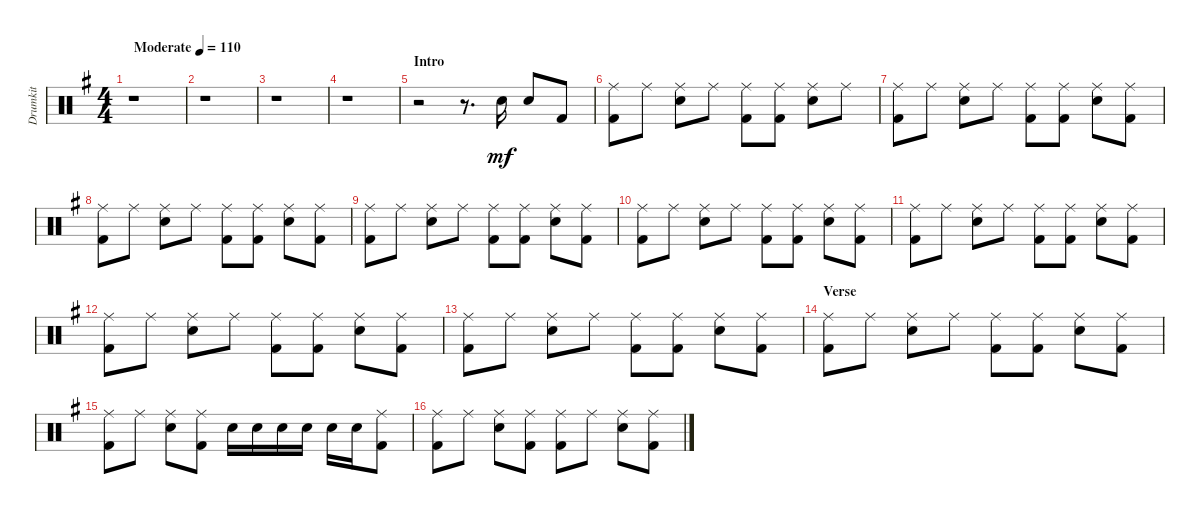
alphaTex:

\track ("Drumkit" "Drumkit") {instrument percussion}
\staff {score}
\articulation defaults
\ts (4 4)
\tempo (110 "Moderate")
\clef neutral
\ks g
r.1{dy mf} |
r.1 |
r.1 |
r.1 |
\section ("" "Intro")
r.2 r.8{d} "Snare (hit) 2".16 "Snare (hit) 2".8 "Kick (hit) 2".8 |
("Kick (hit) 2" "Ride (middle)").8 "Ride (middle)".8 ("Snare (hit) 2" "Ride (middle)").8 "Ride (middle)".8 ("Kick (hit) 2" "Ride (middle)").8 ("Kick (hit) 2" "Ride (middle)").8 ("Snare (hit) 2" "Ride (middle)").8 "Ride (middle)".8 |
("Kick (hit) 2" "Ride (middle)").8 "Ride (middle)".8 ("Snare (hit) 2" "Ride (middle)").8 "Ride (middle)".8 ("Kick (hit) 2" "Ride (middle)").8 ("Kick (hit) 2" "Ride (middle)").8 ("Snare (hit) 2" "Ride (middle)").8 ("Ride (middle)" "Kick (hit) 2").8 |
("Kick (hit) 2" "Ride (middle)").8 "Ride (middle)".8 ("Snare (hit) 2" "Ride (middle)").8 "Ride (middle)".8 ("Kick (hit) 2" "Ride (middle)").8 ("Kick (hit) 2" "Ride (middle)").8 ("Snare (hit) 2" "Ride (middle)").8 ("Ride (middle)" "Kick (hit) 2").8 |
("Kick (hit) 2" "Ride (middle)").8 "Ride (middle)".8 ("Snare (hit) 2" "Ride (middle)").8 "Ride (middle)".8 ("Kick (hit) 2" "Ride (middle)").8 ("Kick (hit) 2" "Ride (middle)").8 ("Snare (hit) 2" "Ride (middle)").8 ("Ride (middle)" "Kick (hit) 2").8 |
("Kick (hit) 2" "Ride (middle)").8 "Ride (middle)".8 ("Snare (hit) 2" "Ride (middle)").8 "Ride (middle)".8 ("Kick (hit) 2" "Ride (middle)").8 ("Kick (hit) 2" "Ride (middle)").8 ("Snare (hit) 2" "Ride (middle)").8 ("Ride (middle)" "Kick (hit) 2").8 |
("Kick (hit) 2" "Ride (middle)").8 "Ride (middle)".8 ("Snare (hit) 2" "Ride (middle)").8 "Ride (middle)".8 ("Kick (hit) 2" "Ride (middle)").8 ("Kick (hit) 2" "Ride (middle)").8 ("Snare (hit) 2" "Ride (middle)").8 ("Ride (middle)" "Kick (hit) 2").8 |
("Kick (hit) 2" "Ride (middle)").8 "Ride (middle)".8 ("Snare (hit) 2" "Ride (middle)").8 "Ride (middle)".8 ("Kick (hit) 2" "Ride (middle)").8 ("Kick (hit) 2" "Ride (middle)").8 ("Snare (hit) 2" "Ride (middle)").8 ("Ride (middle)" "Kick (hit) 2").8 |
("Kick (hit) 2" "Ride (middle)").8 "Ride (middle)".8 ("Snare (hit) 2" "Ride (middle)").8 "Ride (middle)".8 ("Kick (hit) 2" "Ride (middle)").8 ("Kick (hit) 2" "Ride (middle)").8 ("Snare (hit) 2" "Ride (middle)").8 ("Ride (middle)" "Kick (hit) 2").8 |
\section ("" "Verse")
("Kick (hit) 2" "Ride (middle)").8 "Ride (middle)".8 ("Snare (hit) 2" "Ride (middle)").8 "Ride (middle)".8 ("Kick (hit) 2" "Ride (middle)").8 ("Kick (hit) 2" "Ride (middle)").8 ("Snare (hit) 2" "Ride (middle)").8 ("Ride (middle)" "Kick (hit) 2").8 |
("Kick (hit) 2" "Ride (middle)").8 "Ride (middle)".8 ("Snare (hit) 2" "Ride (middle)").8 ("Ride (middle)" "Kick (hit) 2").8 "Snare (hit) 2".16 "Snare (hit) 2".16 "Snare (hit) 2".16 "Snare (hit) 2".16 "Snare (hit) 2".16 "Snare (hit) 2".16 ("Ride (middle)" "Kick (hit) 2").8 |
("Kick (hit) 2" "Ride (middle)").8 "Ride (middle)".8 ("Snare (hit) 2" "Ride (middle)").8 ("Ride (middle)" "Kick (hit) 2").8 ("Kick (hit) 2" "Ride (middle)").8 "Ride (middle)".8 ("Snare (hit) 2" "Ride (middle)").8 ("Kick (hit) 2" "Ride (middle)").8
